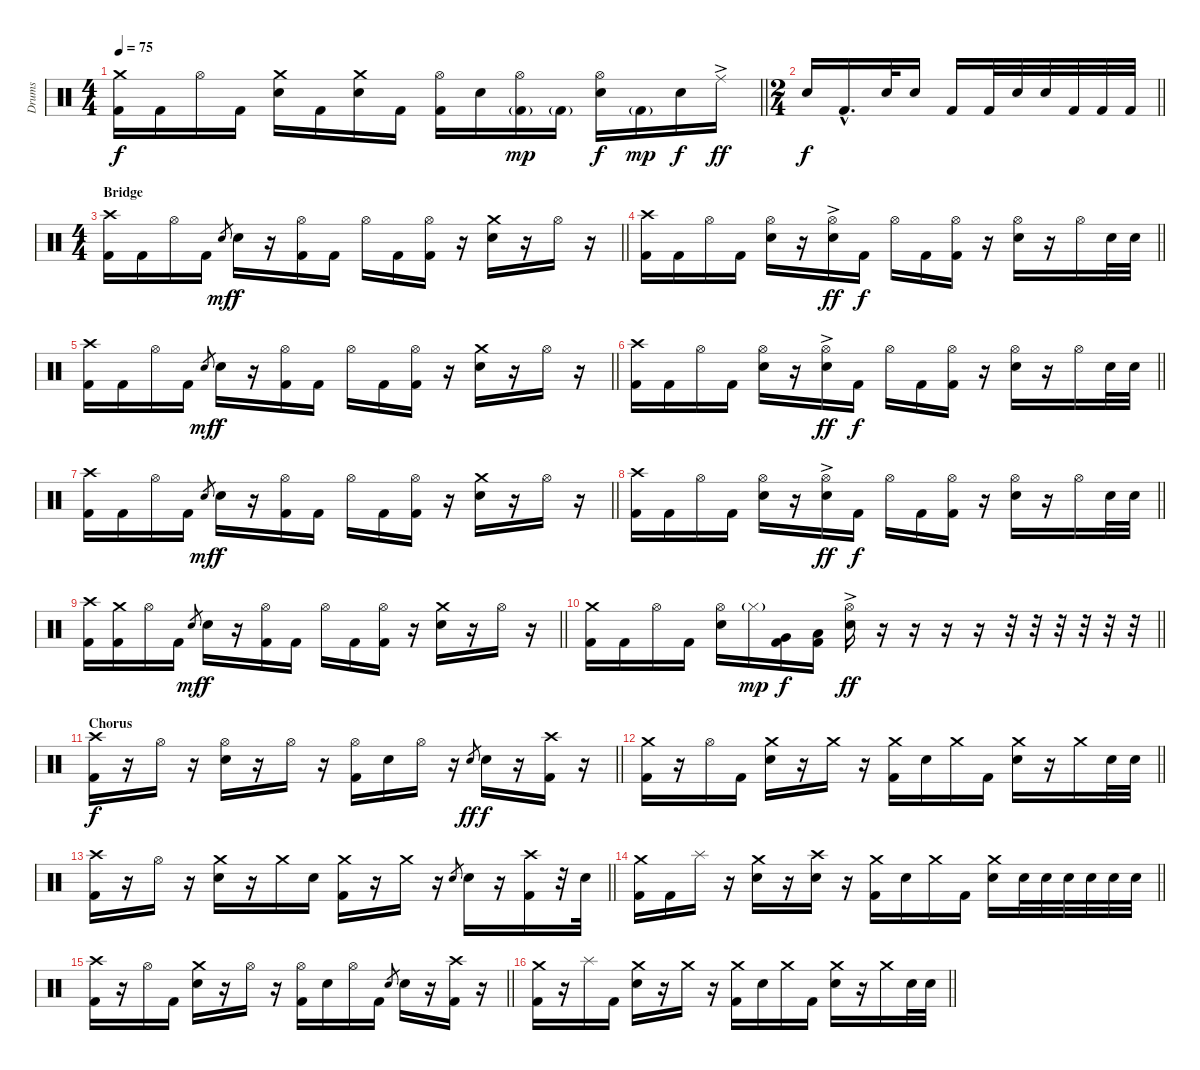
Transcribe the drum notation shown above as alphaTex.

\track ("Drums" "Drums") {instrument percussion}
\staff {score}
\articulation defaults
\ts (4 4)
\tempo 75
\clef neutral
\barLineRight lightlight
\ks c
("Crash medium (hit)" "Kick (hit) 2").16{dy f} "Kick (hit) 2".16 "Hi-Hat (open)".16 "Kick (hit) 2".16 ("Crash medium (hit)" "Snare (hit) 2").16 "Kick (hit) 2".16 ("Crash medium (hit)" "Snare (hit) 2").16 "Kick (hit) 2".16 ("Hi-Hat (open)" "Kick (hit) 2").16 "Snare (hit) 2".16 ("Hi-Hat (open)" "Kick (hit) 2"{g}).16{dy mp} "Kick (hit) 2"{g}.16 ("Hi-Hat (open)" "Snare (hit) 2").16{dy f} "Kick (hit) 2"{g}.16{dy mp} "Snare (hit) 2".16{dy f} "Ride (middle)"{ac}.16{dy ff} |
\ts (2 4)
\barLineRight lightlight "Snare (hit) 2".16{dy f} "Kick (hit) 2"{hac}.16{d} "Snare (hit) 2".32 "Snare (hit) 2".16 "Kick (hit) 2".16 "Kick (hit) 2".32 "Snare (hit) 2".32 "Snare (hit) 2".32 "Kick (hit) 2".32 "Kick (hit) 2".32 "Kick (hit) 2".32
|
\ts (4 4)
\section ("" "Bridge")
\barLineRight lightlight
("Crash high (hit)" "Kick (hit) 2").16 "Kick (hit) 2".16 "Hi-Hat (open)".16 "Kick (hit) 2".16 "Snare (hit) 2".8{gr dy mf} "Snare (hit) 2".16{dy f} r.16 ("Hi-Hat (open)" "Kick (hit) 2").16 "Kick (hit) 2".16 "Hi-Hat (open)".16 "Kick (hit) 2".16 ("Hi-Hat (open)" "Kick (hit) 2").16 r.16 ("Crash medium (hit)" "Snare (hit) 2").16 r.16 "Hi-Hat (open)".16 r.16 |
\barLineRight lightlight
("Crash high (hit)" "Kick (hit) 2").16 "Kick (hit) 2".16 "Hi-Hat (open)".16 "Kick (hit) 2".16 ("Hi-Hat (open)" "Snare (hit) 2").16 r.16 ("Hi-Hat (open)" "Snare (hit) 2"{ac}).16{dy ff} "Kick (hit) 2".16{dy f} "Hi-Hat (open)".16 "Kick (hit) 2".16 ("Hi-Hat (open)" "Kick (hit) 2").16 r.16 ("Hi-Hat (open)" "Snare (hit) 2").16 r.16 "Hi-Hat (open)".16 "Snare (hit) 2".32 "Snare (hit) 2".32 |
\barLineRight lightlight
("Crash high (hit)" "Kick (hit) 2").16 "Kick (hit) 2".16 "Hi-Hat (open)".16 "Kick (hit) 2".16 "Snare (hit) 2".8{gr dy mf} "Snare (hit) 2".16{dy f} r.16 ("Hi-Hat (open)" "Kick (hit) 2").16 "Kick (hit) 2".16 "Hi-Hat (open)".16 "Kick (hit) 2".16 ("Hi-Hat (open)" "Kick (hit) 2").16 r.16 ("Crash medium (hit)" "Snare (hit) 2").16 r.16 "Hi-Hat (open)".16 r.16 |
\barLineRight lightlight
("Crash high (hit)" "Kick (hit) 2").16 "Kick (hit) 2".16 "Hi-Hat (open)".16 "Kick (hit) 2".16 ("Hi-Hat (open)" "Snare (hit) 2").16 r.16 ("Hi-Hat (open)" "Snare (hit) 2"{ac}).16{dy ff} "Kick (hit) 2".16{dy f} "Hi-Hat (open)".16 "Kick (hit) 2".16 ("Hi-Hat (open)" "Kick (hit) 2").16 r.16 ("Hi-Hat (open)" "Snare (hit) 2").16 r.16 "Hi-Hat (open)".16 "Snare (hit) 2".32 "Snare (hit) 2".32 |
\barLineRight lightlight
("Crash high (hit)" "Kick (hit) 2").16 "Kick (hit) 2".16 "Hi-Hat (open)".16 "Kick (hit) 2".16 "Snare (hit) 2".8{gr dy mf} "Snare (hit) 2".16{dy f} r.16 ("Hi-Hat (open)" "Kick (hit) 2").16 "Kick (hit) 2".16 "Hi-Hat (open)".16 "Kick (hit) 2".16 ("Hi-Hat (open)" "Kick (hit) 2").16 r.16 ("Crash medium (hit)" "Snare (hit) 2").16 r.16 "Hi-Hat (open)".16 r.16 |
\barLineRight lightlight
("Crash high (hit)" "Kick (hit) 2").16 "Kick (hit) 2".16 "Hi-Hat (open)".16 "Kick (hit) 2".16 ("Hi-Hat (open)" "Snare (hit) 2").16 r.16 ("Hi-Hat (open)" "Snare (hit) 2"{ac}).16{dy ff} "Kick (hit) 2".16{dy f} "Hi-Hat (open)".16 "Kick (hit) 2".16 ("Hi-Hat (open)" "Kick (hit) 2").16 r.16 ("Hi-Hat (open)" "Snare (hit) 2").16 r.16 "Hi-Hat (open)".16 "Snare (hit) 2".32 "Snare (hit) 2".32 |
\barLineRight lightlight
("Crash high (hit)" "Kick (hit) 2").16 ("Crash medium (hit)" "Kick (hit) 2").16 "Hi-Hat (open)".16 "Kick (hit) 2".16 "Snare (hit) 2".8{gr dy mf} "Snare (hit) 2".16{dy f} r.16 ("Hi-Hat (open)" "Kick (hit) 2").16 "Kick (hit) 2".16 "Hi-Hat (open)".16 "Kick (hit) 2".16 ("Hi-Hat (open)" "Kick (hit) 2").16 r.16 ("Crash medium (hit)" "Snare (hit) 2").16 r.16 "Hi-Hat (open)".16 r.16 |
\barLineRight lightlight
("Crash medium (hit)" "Kick (hit) 2").16 "Kick (hit) 2".16 "Hi-Hat (open)".16 "Kick (hit) 2".16 ("Hi-Hat (open)" "Snare (hit) 2").16 "Hi-Hat (closed)"{g}.16{dy mp} ("Very Low Tom (hit)" "Kick (hit) 2").16{dy f} ("Low Floor Tom (hit)" "Kick (hit) 2").16 ("Hi-Hat (open)"{ac} "Snare (hit) 2").16{dy ff} r.16 r.16 r.16 r.16 r.32 r.32 r.32 r.32 r.32 r.32 |
\section ("" "Chorus")
\barLineRight lightlight
("Crash high (hit)" "Kick (hit) 2").16{dy f} r.16 "Hi-Hat (open)".16 r.16 ("Hi-Hat (open)" "Snare (hit) 2").16 r.16 "Hi-Hat (open)".16 r.16 ("Hi-Hat (open)" "Kick (hit) 2").16 "Snare (hit) 2".16 "Hi-Hat (open)".16 r.16 "Snare (hit) 2".8{gr dy ff} "Snare (hit) 2".16{dy f} r.16 ("Crash high (hit)" "Kick (hit) 2").16 r.16 |
\barLineRight lightlight
("Crash medium (hit)" "Kick (hit) 2").16 r.16 "Hi-Hat (open)".16 "Kick (hit) 2".16 ("Crash medium (hit)" "Snare (hit) 2").16 r.16 "Crash medium (hit)".16 r.16 ("Crash medium (hit)" "Kick (hit) 2").16 "Snare (hit) 2".16 "Crash medium (hit)".16 "Kick (hit) 2".16 ("Crash medium (hit)" "Snare (hit) 2").16 r.16 "Crash medium (hit)".16 "Snare (hit) 2".32 "Snare (hit) 2".32 |
\barLineRight lightlight
("Crash high (hit)" "Kick (hit) 2").16 r.16 "Hi-Hat (open)".16 r.16 ("Crash medium (hit)" "Snare (hit) 2").16 r.16 "Crash medium (hit)".16 "Snare (hit) 2".16 ("Crash medium (hit)" "Kick (hit) 2").16 r.16 "Crash medium (hit)".16 r.16 "Snare (hit) 2".8{gr} "Snare (hit) 2".16 r.16 ("Crash high (hit)" "Kick (hit) 2").16 r.32 "Snare (hit) 2".32 |
\barLineRight lightlight
("Crash medium (hit)" "Kick (hit) 2").16 "Kick (hit) 2".16 "Splash (hit)".16 r.16 ("Crash medium (hit)" "Snare (hit) 2").16 r.16 ("Crash high (hit)" "Snare (hit) 2").16 r.16 ("Crash medium (hit)" "Kick (hit) 2").16 "Snare (hit) 2".16 "Crash medium (hit)".16 "Kick (hit) 2".16 ("Crash medium (hit)" "Snare (hit) 2").16 "Snare (hit) 2".32 "Snare (hit) 2".32 "Snare (hit) 2".32 "Snare (hit) 2".32 "Snare (hit) 2".32 "Snare (hit) 2".32 |
\barLineRight lightlight
("Crash high (hit)" "Kick (hit) 2").16 r.16 "Hi-Hat (open)".16 "Kick (hit) 2".16 ("Crash medium (hit)" "Snare (hit) 2").16 r.16 "Hi-Hat (open)".16 r.16 ("Hi-Hat (open)" "Kick (hit) 2").16 "Snare (hit) 2".16 "Hi-Hat (open)".16 "Kick (hit) 2".16 "Snare (hit) 2".8{gr} "Snare (hit) 2".16 r.16 ("Crash high (hit)" "Kick (hit) 2").16 r.16 |
\barLineRight lightlight
("Crash medium (hit)" "Kick (hit) 2").16 r.16 "Splash (hit)".16 "Kick (hit) 2".16 ("Crash medium (hit)" "Snare (hit) 2").16 r.16 "Crash medium (hit)".16 r.16 ("Crash medium (hit)" "Kick (hit) 2").16 "Snare (hit) 2".16 "Crash medium (hit)".16 "Kick (hit) 2".16 ("Crash medium (hit)" "Snare (hit) 2").16 r.16 "Crash medium (hit)".16 "Snare (hit) 2".32 "Snare (hit) 2".32
